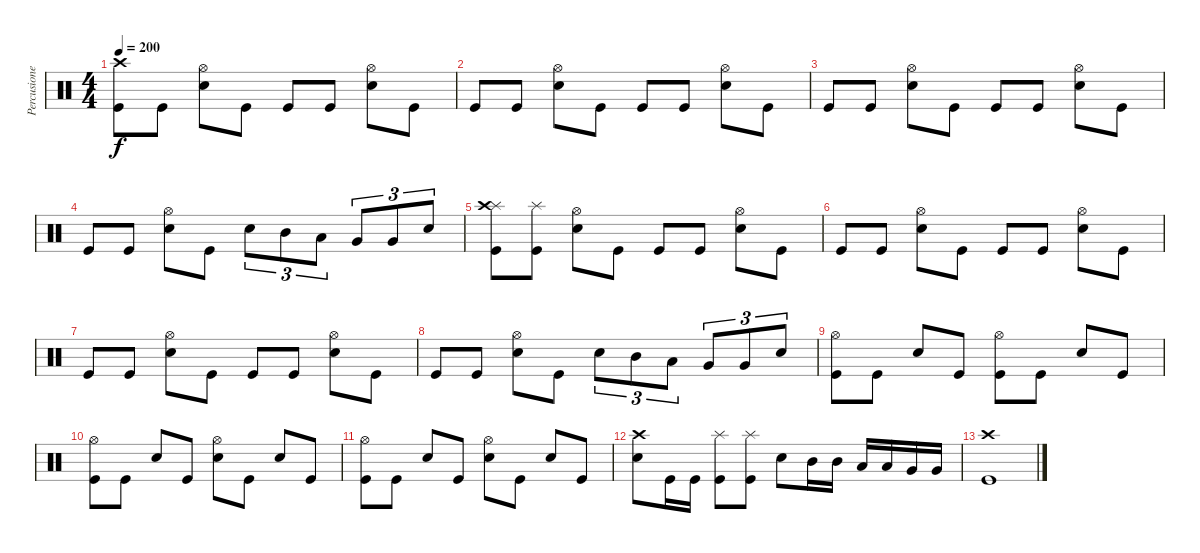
\track ("Percusiones" "Percusione") {instrument percussion}
\staff {score}
\articulation defaults
\ts (4 4)
\tempo 200
\clef neutral
\ks c
("Kick (hit)" "Crash high (hit)").8{dy f} "Kick (hit)".8 ("Hi-Hat (open)" "Electric Snare (hit)").8 "Kick (hit)".8 "Kick (hit)".8 "Kick (hit)".8 ("Hi-Hat (open)" "Electric Snare (hit)").8 "Kick (hit)".8 |
"Kick (hit)".8 "Kick (hit)".8 ("Hi-Hat (open)" "Electric Snare (hit)").8 "Kick (hit)".8 "Kick (hit)".8 "Kick (hit)".8 ("Hi-Hat (open)" "Electric Snare (hit)").8 "Kick (hit)".8 |
"Kick (hit)".8 "Kick (hit)".8 ("Hi-Hat (open)" "Electric Snare (hit)").8 "Kick (hit)".8 "Kick (hit)".8 "Kick (hit)".8 ("Hi-Hat (open)" "Electric Snare (hit)").8 "Kick (hit)".8 |
"Kick (hit)".8 "Kick (hit)".8 ("Hi-Hat (open)" "Electric Snare (hit)").8 "Kick (hit)".8 "Electric Snare (hit)".8{tu (3 2)} "Mid Tom (hit)".8{tu (3 2)} "Low Tom (hit)".8{tu (3 2)} "Very Low Tom (hit)".8{tu (3 2)} "Very Low Tom (hit)".8{tu (3 2)} "Electric Snare (hit)".8{tu (3 2)} |
("Splash (hit)" "Kick (hit)" "Crash high (hit)").8 ("Splash (hit)" "Kick (hit)").8 ("Hi-Hat (open)" "Electric Snare (hit)").8 "Kick (hit)".8 "Kick (hit)".8 "Kick (hit)".8 ("Hi-Hat (open)" "Electric Snare (hit)").8 "Kick (hit)".8 |
"Kick (hit)".8 "Kick (hit)".8 ("Hi-Hat (open)" "Electric Snare (hit)").8 "Kick (hit)".8 "Kick (hit)".8 "Kick (hit)".8 ("Hi-Hat (open)" "Electric Snare (hit)").8 "Kick (hit)".8 |
"Kick (hit)".8 "Kick (hit)".8 ("Hi-Hat (open)" "Electric Snare (hit)").8 "Kick (hit)".8 "Kick (hit)".8 "Kick (hit)".8 ("Hi-Hat (open)" "Electric Snare (hit)").8 "Kick (hit)".8 |
"Kick (hit)".8 "Kick (hit)".8 ("Hi-Hat (open)" "Electric Snare (hit)").8 "Kick (hit)".8 "Electric Snare (hit)".8{tu (3 2)} "Mid Tom (hit)".8{tu (3 2)} "Low Tom (hit)".8{tu (3 2)} "Very Low Tom (hit)".8{tu (3 2)} "Very Low Tom (hit)".8{tu (3 2)} "Electric Snare (hit)".8{tu (3 2)} |
("Hi-Hat (open)" "Kick (hit)").8 "Kick (hit)".8 "Electric Snare (hit)".8 "Kick (hit)".8 ("Hi-Hat (open)" "Kick (hit)").8 "Kick (hit)".8 "Electric Snare (hit)".8 "Kick (hit)".8 |
("Hi-Hat (open)" "Kick (hit)").8 "Kick (hit)".8 "Electric Snare (hit)".8 "Kick (hit)".8 ("Hi-Hat (open)" "Electric Snare (hit)").8 "Kick (hit)".8 "Electric Snare (hit)".8 "Kick (hit)".8 |
("Hi-Hat (open)" "Kick (hit)").8 "Kick (hit)".8 "Electric Snare (hit)".8 "Kick (hit)".8 ("Electric Snare (hit)" "Hi-Hat (open)").8 "Kick (hit)".8 "Electric Snare (hit)".8 "Kick (hit)".8 |
("Crash high (hit)" "Electric Snare (hit)").8 "Kick (hit)".16 "Kick (hit)".16 ("Splash (hit)" "Kick (hit)").8 ("Splash (hit)" "Kick (hit)").8 "Electric Snare (hit)".8 "Mid Tom (hit)".16 "Mid Tom (hit)".16 "Low Tom (hit)".16 "Low Tom (hit)".16 "Very Low Tom (hit)".16 "Very Low Tom (hit)".16 |
("Crash high (hit)" "Kick (hit)").1
